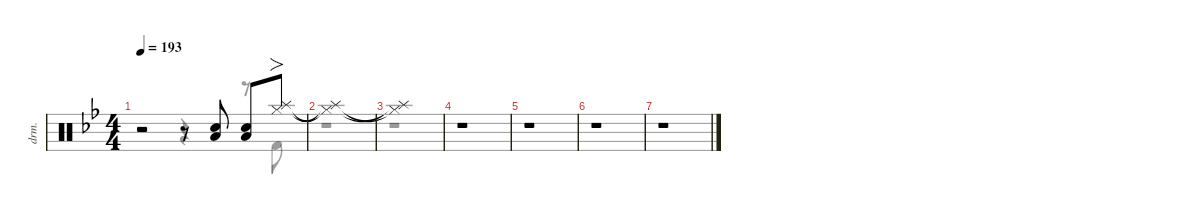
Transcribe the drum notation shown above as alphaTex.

\defaultSystemsLayout 4
\hideDynamics
\bracketExtendMode nobrackets
\track ("伊地知虹夏" "drm.") {instrument percussion}
\staff {score}
\articulation defaults
\voice
\ts (4 4)
\tempo 193
\clef neutral
\ks bb
r.2{dy mf beam Up} r.8{beam Up} ("Snare (hit) 2"{acc forcenatural} "Low Tom (hit)"{acc forcenatural}).8{beam Up} ("Low Tom (hit)"{acc forcenatural} "Snare (hit) 2"{acc forcenatural}).8{beam Up} ("Hi-Hat (closed)"{acc forcenatural} "Splash (hit)"{acc forcenatural}).8{fo beam Up} |
("Splash (hit)"{t acc forcenatural} "Hi-Hat (closed)"{t acc forcenatural}).1{beam Up} |
("Hi-Hat (closed)"{t acc forcenatural} "Splash (hit)"{t acc forcenatural}).1{beam Up} |
r.1{beam Up} |
r.1{beam Up} |
r.1{beam Up} |
r.1{beam Up}
\voice
\clef neutral
\ottava regular
\simile none
\ks bb
r.2{dy mf beam Down} r.4{beam Down} r.8{beam Down} "Kick (hit) 2"{acc forcenatural}.8{beam Down} |
r.1{beam Down} |
r.1{beam Down} |
r.1{beam Down} |
r.1{beam Down} |
r.1{beam Down} |
r.1{beam Down}
